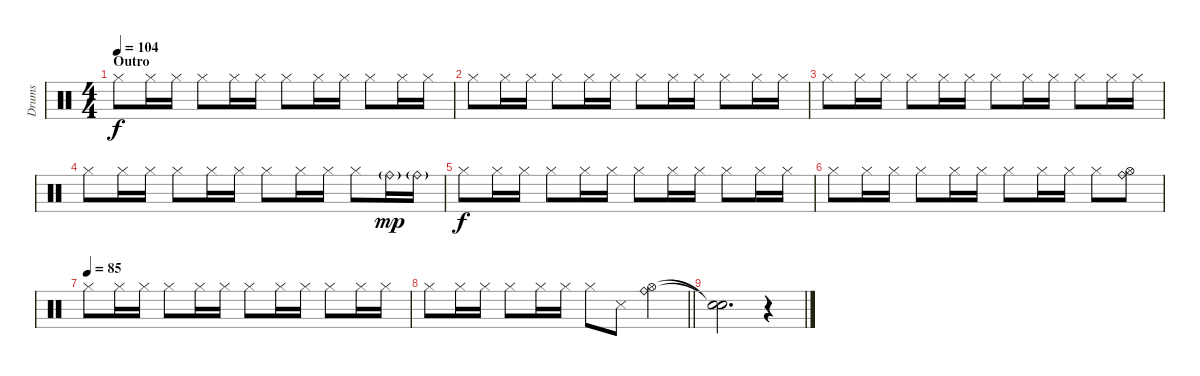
\track ("Drums" "Drums") {instrument percussion}
\staff {score}
\articulation defaults
\ts (4 4)
\section ("" "Outro")
\tempo 104
\clef neutral
\ks c "Hi-Hat (closed)".8{dy f} "Hi-Hat (closed)".16 "Hi-Hat (closed)".16 "Hi-Hat (closed)".8 "Hi-Hat (closed)".16 "Hi-Hat (closed)".16 "Hi-Hat (closed)".8 "Hi-Hat (closed)".16 "Hi-Hat (closed)".16 "Hi-Hat (closed)".8 "Hi-Hat (closed)".16 "Hi-Hat (closed)".16
|
"Hi-Hat (closed)".8 "Hi-Hat (closed)".16 "Hi-Hat (closed)".16 "Hi-Hat (closed)".8 "Hi-Hat (closed)".16 "Hi-Hat (closed)".16 "Hi-Hat (closed)".8 "Hi-Hat (closed)".16 "Hi-Hat (closed)".16 "Hi-Hat (closed)".8 "Hi-Hat (closed)".16 "Hi-Hat (closed)".16 |
"Hi-Hat (closed)".8 "Hi-Hat (closed)".16 "Hi-Hat (closed)".16 "Hi-Hat (closed)".8 "Hi-Hat (closed)".16 "Hi-Hat (closed)".16 "Hi-Hat (closed)".8 "Hi-Hat (closed)".16 "Hi-Hat (closed)".16 "Hi-Hat (closed)".8 "Hi-Hat (closed)".16 "Hi-Hat (closed)".16 |
"Hi-Hat (closed)".8 "Hi-Hat (closed)".16 "Hi-Hat (closed)".16 "Hi-Hat (closed)".8 "Hi-Hat (closed)".16 "Hi-Hat (closed)".16 "Hi-Hat (closed)".8 "Hi-Hat (closed)".16 "Hi-Hat (closed)".16 "Hi-Hat (closed)".8 "Ride (bell)"{g}.16{dy mp} "Ride (bell)"{g}.16 |
"Hi-Hat (closed)".8{dy f} "Hi-Hat (closed)".16 "Hi-Hat (closed)".16 "Hi-Hat (closed)".8 "Hi-Hat (closed)".16 "Hi-Hat (closed)".16 "Hi-Hat (closed)".8 "Hi-Hat (closed)".16 "Hi-Hat (closed)".16 "Hi-Hat (closed)".8 "Hi-Hat (closed)".16 "Hi-Hat (closed)".16 |
"Hi-Hat (closed)".8 "Hi-Hat (closed)".16 "Hi-Hat (closed)".16 "Hi-Hat (closed)".8 "Hi-Hat (closed)".16 "Hi-Hat (closed)".16 "Hi-Hat (closed)".8 "Hi-Hat (closed)".16 "Hi-Hat (closed)".16 "Hi-Hat (closed)".8 ("Ride (bell)" "Hi-Hat (open)").8 |
\tempo (85)
"Hi-Hat (closed)".8 "Hi-Hat (closed)".16 "Hi-Hat (closed)".16 "Hi-Hat (closed)".8 "Hi-Hat (closed)".16 "Hi-Hat (closed)".16 "Hi-Hat (closed)".8 "Hi-Hat (closed)".16 "Hi-Hat (closed)".16 "Hi-Hat (closed)".8 "Hi-Hat (closed)".16 "Hi-Hat (closed)".16 |
\barLineRight lightlight "Hi-Hat (closed)".8 "Hi-Hat (closed)".16 "Hi-Hat (closed)".16 "Hi-Hat (closed)".8 "Hi-Hat (closed)".16 "Hi-Hat (closed)".16 "Hi-Hat (closed)".8 "Snare (side stick) 3".8
("Hi-Hat (open)" "Ride (bell)").4 |
("Snare (hit)"{t} "Snare (hit)"{t}).2{d} r.4
